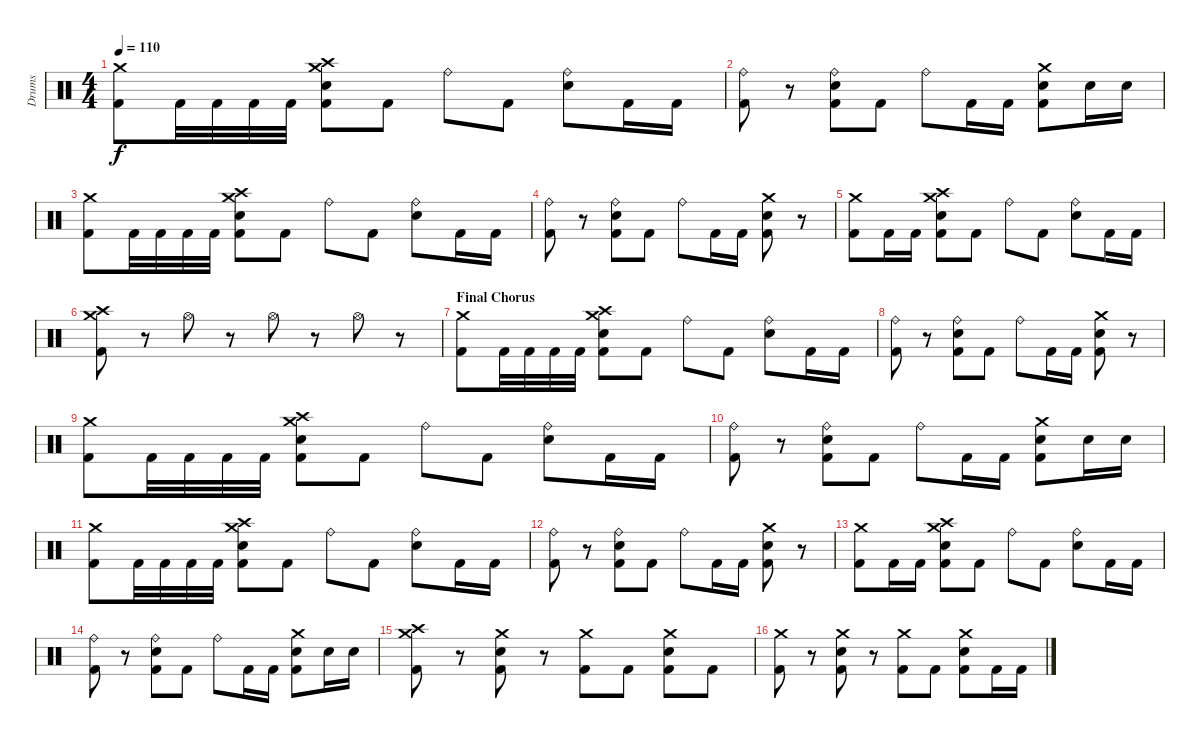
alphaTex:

\track ("Drums" "Drums") {instrument percussion}
\staff {score}
\articulation defaults
\ts (4 4)
\tempo 110
\clef neutral
\ks c
("Crash medium (hit)" "Kick (hit) 2").8{dy f} "Kick (hit) 2".32 "Kick (hit) 2".32 "Kick (hit) 2".32 "Kick (hit) 2".32 ("Crash high (hit)" "Crash medium (hit)" "Electric Snare (hit)" "Kick (hit) 2").8 "Kick (hit) 2".8 "Ride (bell)".8 "Kick (hit) 2".8 ("Ride (bell)" "Electric Snare (hit)").8 "Kick (hit) 2".16 "Kick (hit) 2".16 |
("Ride (bell)" "Kick (hit) 2").8 r.8 ("Ride (bell)" "Electric Snare (hit)" "Kick (hit) 2").8 "Kick (hit) 2".8 "Ride (bell)".8 "Kick (hit) 2".16 "Kick (hit) 2".16 ("Crash medium (hit)" "Electric Snare (hit)" "Kick (hit) 2").8 "Electric Snare (hit)".16 "Electric Snare (hit)".16 |
("Crash medium (hit)" "Kick (hit) 2").8 "Kick (hit) 2".32 "Kick (hit) 2".32 "Kick (hit) 2".32 "Kick (hit) 2".32 ("Crash high (hit)" "Crash medium (hit)" "Electric Snare (hit)" "Kick (hit) 2").8 "Kick (hit) 2".8 "Ride (bell)".8 "Kick (hit) 2".8 ("Ride (bell)" "Electric Snare (hit)").8 "Kick (hit) 2".16 "Kick (hit) 2".16 |
("Ride (bell)" "Kick (hit) 2").8 r.8 ("Ride (bell)" "Electric Snare (hit)" "Kick (hit) 2").8 "Kick (hit) 2".8 "Ride (bell)".8 "Kick (hit) 2".16 "Kick (hit) 2".16 ("Crash medium (hit)" "Electric Snare (hit)" "Kick (hit) 2").8 r.8 |
("Crash medium (hit)" "Kick (hit) 2").8 "Kick (hit) 2".16 "Kick (hit) 2".16 ("Crash high (hit)" "Crash medium (hit)" "Electric Snare (hit)" "Kick (hit) 2").8 "Kick (hit) 2".8 "Ride (bell)".8 "Kick (hit) 2".8 ("Ride (bell)" "Electric Snare (hit)").8 "Kick (hit) 2".16 "Kick (hit) 2".16 |
("Crash high (hit)" "Crash medium (hit)" "Kick (hit) 2").8 r.8 "Hi-Hat (open)".8 r.8 "Hi-Hat (open)".8 r.8 "Hi-Hat (open)".8 r.8 |
\section ("" "Final Chorus")
("Crash medium (hit)" "Kick (hit) 2").8 "Kick (hit) 2".32 "Kick (hit) 2".32 "Kick (hit) 2".32 "Kick (hit) 2".32 ("Crash high (hit)" "Crash medium (hit)" "Electric Snare (hit)" "Kick (hit) 2").8 "Kick (hit) 2".8 "Ride (bell)".8 "Kick (hit) 2".8 ("Ride (bell)" "Electric Snare (hit)").8 "Kick (hit) 2".16 "Kick (hit) 2".16 |
("Ride (bell)" "Kick (hit) 2").8 r.8 ("Ride (bell)" "Electric Snare (hit)" "Kick (hit) 2").8 "Kick (hit) 2".8 "Ride (bell)".8 "Kick (hit) 2".16 "Kick (hit) 2".16 ("Crash medium (hit)" "Electric Snare (hit)" "Kick (hit) 2").8 r.8 |
("Crash medium (hit)" "Kick (hit) 2").8 "Kick (hit) 2".32 "Kick (hit) 2".32 "Kick (hit) 2".32 "Kick (hit) 2".32 ("Crash high (hit)" "Crash medium (hit)" "Electric Snare (hit)" "Kick (hit) 2").8 "Kick (hit) 2".8 "Ride (bell)".8 "Kick (hit) 2".8 ("Ride (bell)" "Electric Snare (hit)").8 "Kick (hit) 2".16 "Kick (hit) 2".16 |
("Ride (bell)" "Kick (hit) 2").8 r.8 ("Ride (bell)" "Electric Snare (hit)" "Kick (hit) 2").8 "Kick (hit) 2".8 "Ride (bell)".8 "Kick (hit) 2".16 "Kick (hit) 2".16 ("Crash medium (hit)" "Electric Snare (hit)" "Kick (hit) 2").8 "Electric Snare (hit)".16 "Electric Snare (hit)".16 |
("Crash medium (hit)" "Kick (hit) 2").8 "Kick (hit) 2".32 "Kick (hit) 2".32 "Kick (hit) 2".32 "Kick (hit) 2".32 ("Crash high (hit)" "Crash medium (hit)" "Electric Snare (hit)" "Kick (hit) 2").8 "Kick (hit) 2".8 "Ride (bell)".8 "Kick (hit) 2".8 ("Ride (bell)" "Electric Snare (hit)").8 "Kick (hit) 2".16 "Kick (hit) 2".16 |
("Ride (bell)" "Kick (hit) 2").8 r.8 ("Ride (bell)" "Electric Snare (hit)" "Kick (hit) 2").8 "Kick (hit) 2".8 "Ride (bell)".8 "Kick (hit) 2".16 "Kick (hit) 2".16 ("Crash medium (hit)" "Electric Snare (hit)" "Kick (hit) 2").8 r.8 |
("Crash medium (hit)" "Kick (hit) 2").8 "Kick (hit) 2".16 "Kick (hit) 2".16 ("Crash high (hit)" "Crash medium (hit)" "Electric Snare (hit)" "Kick (hit) 2").8 "Kick (hit) 2".8 "Ride (bell)".8 "Kick (hit) 2".8 ("Ride (bell)" "Electric Snare (hit)").8 "Kick (hit) 2".16 "Kick (hit) 2".16 |
("Ride (bell)" "Kick (hit) 2").8 r.8 ("Ride (bell)" "Electric Snare (hit)" "Kick (hit) 2").8 "Kick (hit) 2".8 "Ride (bell)".8 "Kick (hit) 2".16 "Kick (hit) 2".16 ("Crash medium (hit)" "Electric Snare (hit)" "Kick (hit) 2").8 "Electric Snare (hit)".16 "Electric Snare (hit)".16 |
("Crash high (hit)" "Crash medium (hit)" "Kick (hit) 2").8 r.8 ("Crash medium (hit)" "Electric Snare (hit)" "Kick (hit) 2").8 r.8 ("Crash medium (hit)" "Kick (hit) 2").8 "Kick (hit) 2".8 ("Crash medium (hit)" "Electric Snare (hit)" "Kick (hit) 2").8 "Kick (hit) 2".8 |
("Crash medium (hit)" "Kick (hit) 2").8 r.8 ("Crash medium (hit)" "Electric Snare (hit)" "Kick (hit) 2").8 r.8 ("Crash medium (hit)" "Kick (hit) 2").8 "Kick (hit) 2".8 ("Crash medium (hit)" "Electric Snare (hit)" "Kick (hit) 2").8 "Kick (hit) 2".16 "Kick (hit) 2".16
